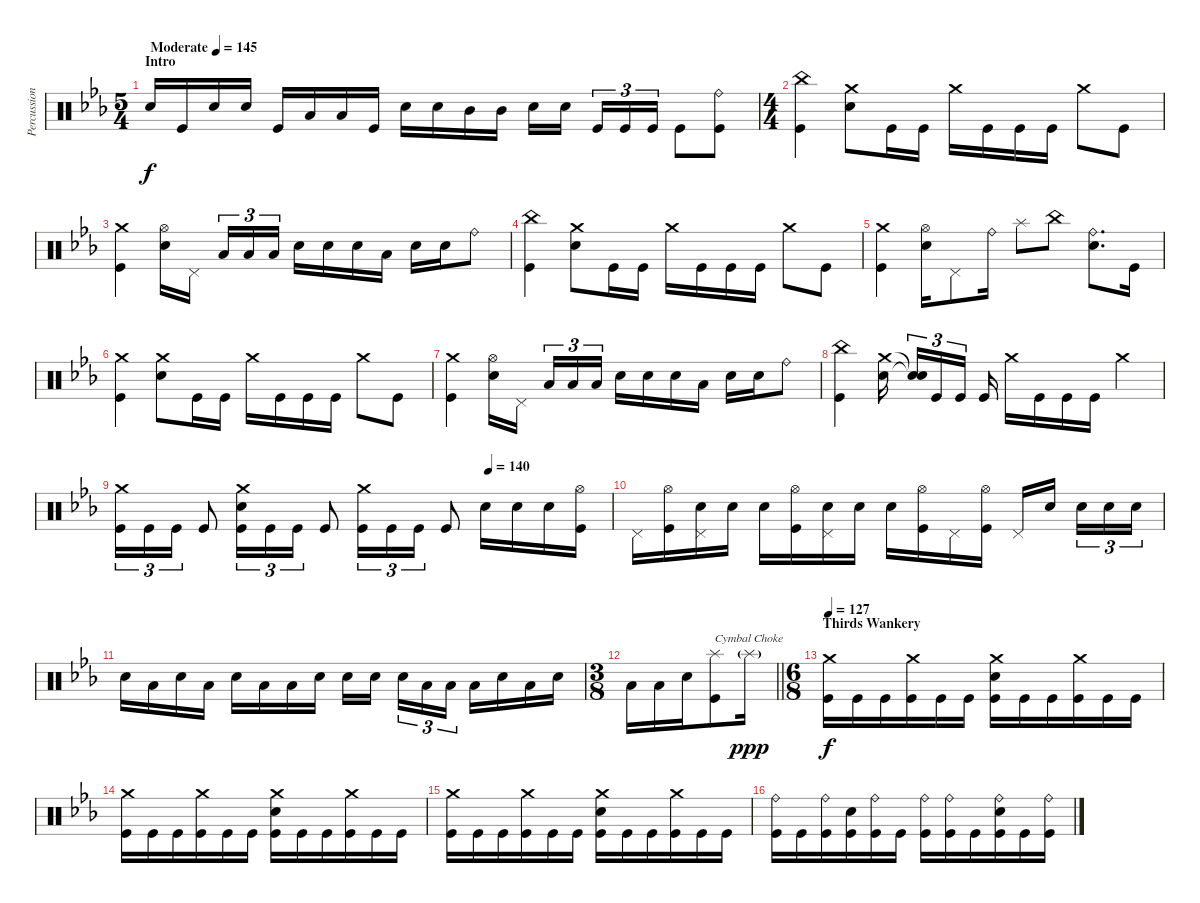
\track ("Percussion" "Percussion") {instrument percussion}
\staff {score}
\articulation defaults
\ts (5 4)
\section ("" "Intro")
\tempo (145 "Moderate")
\clef neutral
\ks eb "Electric Snare (hit)".16{dy f} "Kick (hit)".16 "Electric Snare (hit)".16 "Electric Snare (hit)".16 "Kick (hit)".16 "Low Tom (hit)".16 "Low Tom (hit)".16 "Kick (hit)".16 "Electric Snare (hit)".16 "Electric Snare (hit)".16 "Mid Tom (hit)".16 "Mid Tom (hit)".16 "Electric Snare (hit)".16 "Electric Snare (hit)".16{beam splitsecondary} "Kick (hit)".16{tu (3 2)} "Kick (hit)".16{tu (3 2)} "Kick (hit)".16{tu (3 2)} "Kick (hit)".8
("Ride (bell)" "Kick (hit)").8 |
\ts (4 4)
("China (hit)" "Kick (hit)").4 ("Crash medium (hit)" "Electric Snare (hit)").8 "Kick (hit)".16 "Kick (hit)".16 "Crash medium (hit)".16 "Kick (hit)".16 "Kick (hit)".16 "Kick (hit)".16 "Crash medium (hit)".8 "Kick (hit)".8 |
("Crash medium (hit)" "Kick (hit)").4 ("Hi-Hat (open)" "Electric Snare (hit)").16 "Pedal Hi-Hat (hit)".16{beam splitsecondary} "Low Tom (hit)".16{tu (3 2)} "Low Tom (hit)".16{tu (3 2)} "Low Tom (hit)".16{tu (3 2)} "Electric Snare (hit)".16 "Electric Snare (hit)".16 "Electric Snare (hit)".16 "Low Tom (hit)".16 "Electric Snare (hit)".16 "Electric Snare (hit)".16 "Ride (bell)".8 |
("China (hit)" "Kick (hit)").4 ("Crash medium (hit)" "Electric Snare (hit)").8 "Kick (hit)".16 "Kick (hit)".16 "Crash medium (hit)".16 "Kick (hit)".16 "Kick (hit)".16 "Kick (hit)".16 "Crash medium (hit)".8 "Kick (hit)".8 |
("Crash medium (hit)" "Kick (hit)").4 ("Hi-Hat (open)" "Electric Snare (hit)").16 "Pedal Hi-Hat (hit)".8 "Ride (bell)".16 "Splash (hit)".8 "China (hit)".8 ("Ride (bell)" "Electric Snare (hit)").8{d} "Kick (hit)".16 |
("Crash medium (hit)" "Kick (hit)").4 ("Crash medium (hit)" "Electric Snare (hit)").8 "Kick (hit)".16 "Kick (hit)".16 "Crash medium (hit)".16 "Kick (hit)".16 "Kick (hit)".16 "Kick (hit)".16 "Crash medium (hit)".8 "Kick (hit)".8 |
("Crash medium (hit)" "Kick (hit)").4 ("Hi-Hat (open)" "Electric Snare (hit)").16 "Pedal Hi-Hat (hit)".16{beam splitsecondary} "Low Tom (hit)".16{tu (3 2)} "Low Tom (hit)".16{tu (3 2)} "Low Tom (hit)".16{tu (3 2)} "Electric Snare (hit)".16 "Electric Snare (hit)".16 "Electric Snare (hit)".16 "Low Tom (hit)".16 "Electric Snare (hit)".16 "Electric Snare (hit)".16 "Ride (bell)".8 |
("China (hit)" "Kick (hit)").4 ("Crash medium (hit)" "Electric Snare (hit)").16{beam splitsecondary} ("Snare (hit)"{t} "Snare (hit)"{t}).16{tu (3 2)} "Kick (hit)".16{tu (3 2)} "Kick (hit)".16{tu (3 2) beam splitsecondary} "Kick (hit)".16 "Crash medium (hit)".16 "Kick (hit)".16 "Kick (hit)".16 "Kick (hit)".16 "Crash medium (hit)".4 |
\tempo (140 0.75)
("Crash medium (hit)" "Kick (hit)").16{tu (3 2)} "Kick (hit)".16{tu (3 2)} "Kick (hit)".16{tu (3 2)} "Kick (hit)".8 ("Crash medium (hit)" "Electric Snare (hit)" "Kick (hit)").16{tu (3 2)} "Kick (hit)".16{tu (3 2)} "Kick (hit)".16{tu (3 2)} "Kick (hit)".8 ("Crash medium (hit)" "Kick (hit)").16{tu (3 2)} "Kick (hit)".16{tu (3 2)} "Kick (hit)".16{tu (3 2)} "Kick (hit)".8 "Electric Snare (hit)".16 "Electric Snare (hit)".16 "Electric Snare (hit)".16 ("Hi-Hat (open)" "Kick (hit)").16 |
"Pedal Hi-Hat (hit)".16 ("Hi-Hat (open)" "Kick (hit)").16 ("Pedal Hi-Hat (hit)" "Electric Snare (hit)").16 "Electric Snare (hit)".16 "Electric Snare (hit)".16 ("Hi-Hat (open)" "Kick (hit)").16 ("Pedal Hi-Hat (hit)" "Electric Snare (hit)").16 "Electric Snare (hit)".16 "Electric Snare (hit)".16 ("Hi-Hat (open)" "Kick (hit)").16 "Pedal Hi-Hat (hit)".16 ("Hi-Hat (open)" "Kick (hit)").16 "Pedal Hi-Hat (hit)".16 "Electric Snare (hit)".16{beam splitsecondary} "Electric Snare (hit)".16{tu (3 2)} "Electric Snare (hit)".16{tu (3 2)} "Electric Snare (hit)".16{tu (3 2)} |
"Electric Snare (hit)".16 "Low Tom (hit)".16 "Electric Snare (hit)".16 "Low Tom (hit)".16 "Electric Snare (hit)".16 "Low Tom (hit)".16 "Low Tom (hit)".16 "Electric Snare (hit)".16 "Electric Snare (hit)".16 "Electric Snare (hit)".16{beam splitsecondary} "Electric Snare (hit)".16{tu (3 2)} "Low Tom (hit)".16{tu (3 2)} "Low Tom (hit)".16{tu (3 2)} "Low Tom (hit)".16 "Electric Snare (hit)".16 "Low Tom (hit)".16 "Electric Snare (hit)".16 |
\ts (3 8)
\barLineRight lightlight "Low Tom (hit)".16 "Low Tom (hit)".16 "Electric Snare (hit)".16
("Splash (hit)" "Kick (hit)").8{txt "Cymbal Choke"} "Splash (hit)"{g}.16{dy ppp} |
\ts (6 8)
\section ("" "Thirds Wankery")
\tempo 127
("Crash medium (hit)" "Kick (hit)").16{dy f} "Kick (hit)".16 "Kick (hit)".16 ("Crash medium (hit)" "Kick (hit)").16 "Kick (hit)".16 "Kick (hit)".16 ("Crash medium (hit)" "Electric Snare (hit)" "Kick (hit)").16 "Kick (hit)".16 "Kick (hit)".16 ("Crash medium (hit)" "Kick (hit)").16 "Kick (hit)".16 "Kick (hit)".16 |
("Crash medium (hit)" "Kick (hit)").16 "Kick (hit)".16 "Kick (hit)".16 ("Crash medium (hit)" "Kick (hit)").16 "Kick (hit)".16 "Kick (hit)".16 ("Crash medium (hit)" "Electric Snare (hit)" "Kick (hit)").16 "Kick (hit)".16 "Kick (hit)".16 ("Crash medium (hit)" "Kick (hit)").16 "Kick (hit)".16 "Kick (hit)".16 |
("Crash medium (hit)" "Kick (hit)").16 "Kick (hit)".16 "Kick (hit)".16 ("Crash medium (hit)" "Kick (hit)").16 "Kick (hit)".16 "Kick (hit)".16 ("Crash medium (hit)" "Electric Snare (hit)" "Kick (hit)").16 "Kick (hit)".16 "Kick (hit)".16 ("Crash medium (hit)" "Kick (hit)").16 "Kick (hit)".16 "Kick (hit)".16 |
("Ride (bell)" "Kick (hit)").16 "Kick (hit)".16 ("Ride (bell)" "Kick (hit)").16 ("Electric Snare (hit)" "Kick (hit)").16 ("Ride (bell)" "Kick (hit)").16 "Kick (hit)".16 ("Ride (bell)" "Kick (hit)").16 ("Ride (bell)" "Kick (hit)").16 "Kick (hit)".16 ("Ride (bell)" "Electric Snare (hit)" "Kick (hit)").16 "Kick (hit)".16 ("Ride (bell)" "Kick (hit)").16
